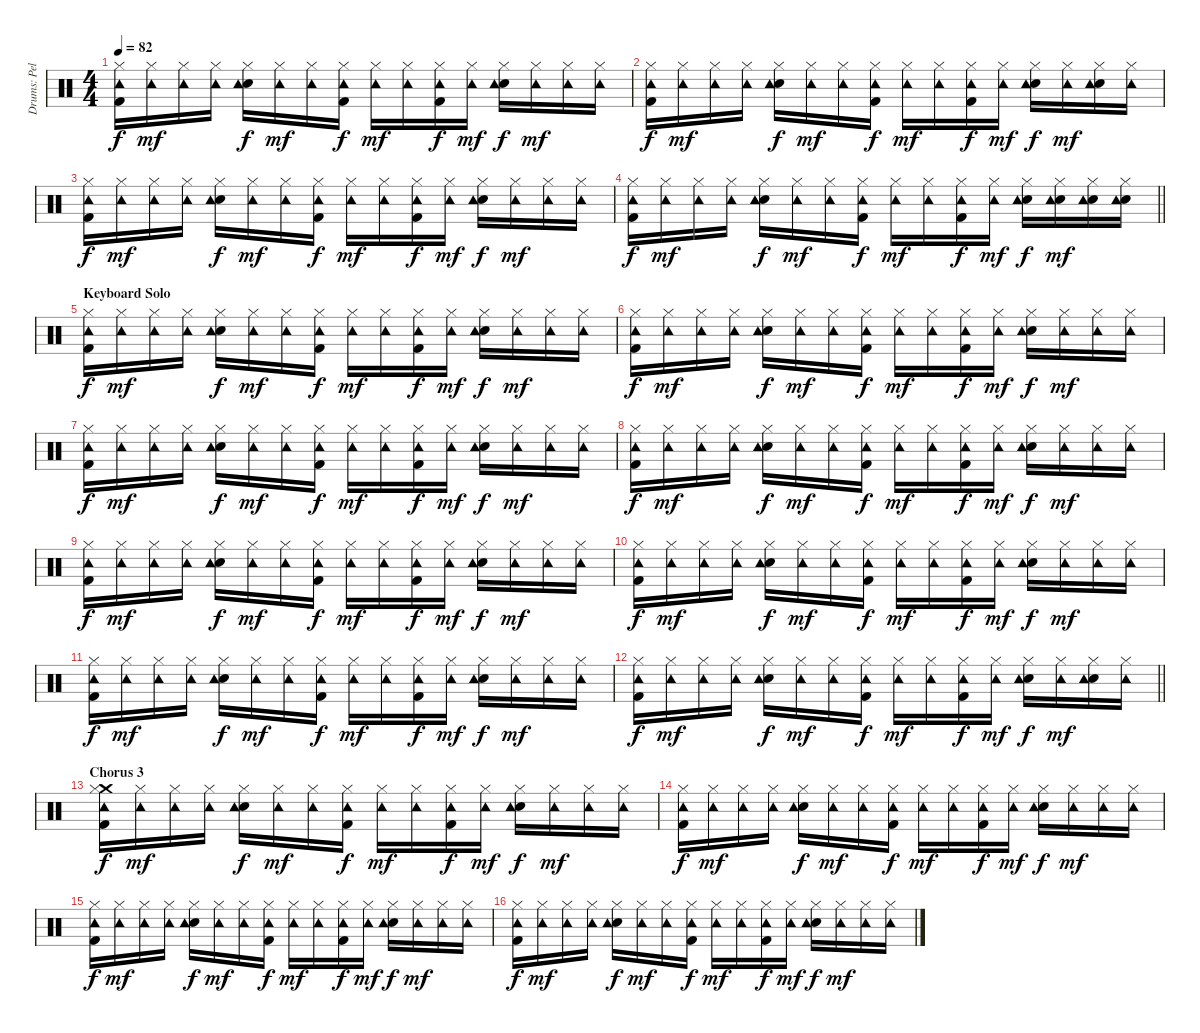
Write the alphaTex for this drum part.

\track ("Drums: Pelle Alsing" "Drums: Pel") {instrument percussion}
\staff {score}
\articulation defaults
\ts (4 4)
\tempo 82
\clef neutral
\ks c
("Hi-Hat (closed)" "Tambourine (hit)" "Kick (hit) 2").16{dy f} ("Hi-Hat (closed)" "Tambourine (hit)").16{dy mf} ("Hi-Hat (closed)" "Tambourine (hit)").16 ("Hi-Hat (closed)" "Tambourine (hit)").16 ("Hi-Hat (closed)" "Snare (hit) 2" "Tambourine (hit)").16{dy f} ("Hi-Hat (closed)" "Tambourine (hit)").16{dy mf} ("Hi-Hat (closed)" "Tambourine (hit)").16 ("Hi-Hat (closed)" "Tambourine (hit)" "Kick (hit) 2").16{dy f} ("Hi-Hat (closed)" "Tambourine (hit)").16{dy mf} ("Hi-Hat (closed)" "Tambourine (hit)").16 ("Hi-Hat (closed)" "Tambourine (hit)" "Kick (hit) 2").16{dy f} ("Hi-Hat (closed)" "Tambourine (hit)").16{dy mf} ("Hi-Hat (closed)" "Snare (hit) 2" "Tambourine (hit)").16{dy f} ("Hi-Hat (closed)" "Tambourine (hit)").16{dy mf} ("Hi-Hat (closed)" "Tambourine (hit)").16 ("Hi-Hat (closed)" "Tambourine (hit)").16 |
("Hi-Hat (closed)" "Tambourine (hit)" "Kick (hit) 2").16{dy f} ("Hi-Hat (closed)" "Tambourine (hit)").16{dy mf} ("Hi-Hat (closed)" "Tambourine (hit)").16 ("Hi-Hat (closed)" "Tambourine (hit)").16 ("Hi-Hat (closed)" "Snare (hit) 2" "Tambourine (hit)").16{dy f} ("Hi-Hat (closed)" "Tambourine (hit)").16{dy mf} ("Hi-Hat (closed)" "Tambourine (hit)").16 ("Hi-Hat (closed)" "Tambourine (hit)" "Kick (hit) 2").16{dy f} ("Hi-Hat (closed)" "Tambourine (hit)").16{dy mf} ("Hi-Hat (closed)" "Tambourine (hit)").16 ("Hi-Hat (closed)" "Tambourine (hit)" "Kick (hit) 2").16{dy f} ("Hi-Hat (closed)" "Tambourine (hit)").16{dy mf} ("Hi-Hat (closed)" "Snare (hit) 2" "Tambourine (hit)").16{dy f} ("Hi-Hat (closed)" "Tambourine (hit)").16{dy mf} ("Hi-Hat (closed)" "Snare (hit) 2" "Tambourine (hit)").16 ("Hi-Hat (closed)" "Tambourine (hit)").16 |
("Hi-Hat (closed)" "Tambourine (hit)" "Kick (hit) 2").16{dy f} ("Hi-Hat (closed)" "Tambourine (hit)").16{dy mf} ("Hi-Hat (closed)" "Tambourine (hit)").16 ("Hi-Hat (closed)" "Tambourine (hit)").16 ("Hi-Hat (closed)" "Snare (hit) 2" "Tambourine (hit)").16{dy f} ("Hi-Hat (closed)" "Tambourine (hit)").16{dy mf} ("Hi-Hat (closed)" "Tambourine (hit)").16 ("Hi-Hat (closed)" "Tambourine (hit)" "Kick (hit) 2").16{dy f} ("Hi-Hat (closed)" "Tambourine (hit)").16{dy mf} ("Hi-Hat (closed)" "Tambourine (hit)").16 ("Hi-Hat (closed)" "Tambourine (hit)" "Kick (hit) 2").16{dy f} ("Hi-Hat (closed)" "Tambourine (hit)").16{dy mf} ("Hi-Hat (closed)" "Snare (hit) 2" "Tambourine (hit)").16{dy f} ("Hi-Hat (closed)" "Tambourine (hit)").16{dy mf} ("Hi-Hat (closed)" "Tambourine (hit)").16 ("Hi-Hat (closed)" "Tambourine (hit)").16 |
\barLineRight lightlight
("Hi-Hat (closed)" "Tambourine (hit)" "Kick (hit) 2").16{dy f} ("Hi-Hat (closed)" "Tambourine (hit)").16{dy mf} ("Hi-Hat (closed)" "Tambourine (hit)").16 ("Hi-Hat (closed)" "Tambourine (hit)").16 ("Hi-Hat (closed)" "Snare (hit) 2" "Tambourine (hit)").16{dy f} ("Hi-Hat (closed)" "Tambourine (hit)").16{dy mf} ("Hi-Hat (closed)" "Tambourine (hit)").16 ("Hi-Hat (closed)" "Tambourine (hit)" "Kick (hit) 2").16{dy f} ("Hi-Hat (closed)" "Tambourine (hit)").16{dy mf} ("Hi-Hat (closed)" "Tambourine (hit)").16 ("Hi-Hat (closed)" "Tambourine (hit)" "Kick (hit) 2").16{dy f} ("Hi-Hat (closed)" "Tambourine (hit)").16{dy mf} ("Hi-Hat (closed)" "Snare (hit) 2" "Tambourine (hit)").16{dy f} ("Hi-Hat (closed)" "Snare (hit) 2" "Tambourine (hit)").16{dy mf} ("Hi-Hat (closed)" "Snare (hit) 2" "Tambourine (hit)").16 ("Hi-Hat (closed)" "Snare (hit) 2" "Tambourine (hit)").16 |
\section ("" "Keyboard Solo")
("Hi-Hat (closed)" "Tambourine (hit)" "Kick (hit) 2").16{dy f} ("Hi-Hat (closed)" "Tambourine (hit)").16{dy mf} ("Hi-Hat (closed)" "Tambourine (hit)").16 ("Hi-Hat (closed)" "Tambourine (hit)").16 ("Hi-Hat (closed)" "Snare (hit) 2" "Tambourine (hit)").16{dy f} ("Hi-Hat (closed)" "Tambourine (hit)").16{dy mf} ("Hi-Hat (closed)" "Tambourine (hit)").16 ("Hi-Hat (closed)" "Tambourine (hit)" "Kick (hit) 2").16{dy f} ("Hi-Hat (closed)" "Tambourine (hit)").16{dy mf} ("Hi-Hat (closed)" "Tambourine (hit)").16 ("Hi-Hat (closed)" "Tambourine (hit)" "Kick (hit) 2").16{dy f} ("Hi-Hat (closed)" "Tambourine (hit)").16{dy mf} ("Hi-Hat (closed)" "Snare (hit) 2" "Tambourine (hit)").16{dy f} ("Hi-Hat (closed)" "Tambourine (hit)").16{dy mf} ("Hi-Hat (closed)" "Tambourine (hit)").16 ("Hi-Hat (closed)" "Tambourine (hit)").16 |
("Hi-Hat (closed)" "Tambourine (hit)" "Kick (hit) 2").16{dy f} ("Hi-Hat (closed)" "Tambourine (hit)").16{dy mf} ("Hi-Hat (closed)" "Tambourine (hit)").16 ("Hi-Hat (closed)" "Tambourine (hit)").16 ("Hi-Hat (closed)" "Snare (hit) 2" "Tambourine (hit)").16{dy f} ("Hi-Hat (closed)" "Tambourine (hit)").16{dy mf} ("Hi-Hat (closed)" "Tambourine (hit)").16 ("Hi-Hat (closed)" "Tambourine (hit)" "Kick (hit) 2").16{dy f} ("Hi-Hat (closed)" "Tambourine (hit)").16{dy mf} ("Hi-Hat (closed)" "Tambourine (hit)").16 ("Hi-Hat (closed)" "Tambourine (hit)" "Kick (hit) 2").16{dy f} ("Hi-Hat (closed)" "Tambourine (hit)").16{dy mf} ("Hi-Hat (closed)" "Snare (hit) 2" "Tambourine (hit)").16{dy f} ("Hi-Hat (closed)" "Tambourine (hit)").16{dy mf} ("Hi-Hat (closed)" "Tambourine (hit)").16 ("Hi-Hat (closed)" "Tambourine (hit)").16 |
("Hi-Hat (closed)" "Tambourine (hit)" "Kick (hit) 2").16{dy f} ("Hi-Hat (closed)" "Tambourine (hit)").16{dy mf} ("Hi-Hat (closed)" "Tambourine (hit)").16 ("Hi-Hat (closed)" "Tambourine (hit)").16 ("Hi-Hat (closed)" "Snare (hit) 2" "Tambourine (hit)").16{dy f} ("Hi-Hat (closed)" "Tambourine (hit)").16{dy mf} ("Hi-Hat (closed)" "Tambourine (hit)").16 ("Hi-Hat (closed)" "Tambourine (hit)" "Kick (hit) 2").16{dy f} ("Hi-Hat (closed)" "Tambourine (hit)").16{dy mf} ("Hi-Hat (closed)" "Tambourine (hit)").16 ("Hi-Hat (closed)" "Tambourine (hit)" "Kick (hit) 2").16{dy f} ("Hi-Hat (closed)" "Tambourine (hit)").16{dy mf} ("Hi-Hat (closed)" "Snare (hit) 2" "Tambourine (hit)").16{dy f} ("Hi-Hat (closed)" "Tambourine (hit)").16{dy mf} ("Hi-Hat (closed)" "Tambourine (hit)").16 ("Hi-Hat (closed)" "Tambourine (hit)").16 |
("Hi-Hat (closed)" "Tambourine (hit)" "Kick (hit) 2").16{dy f} ("Hi-Hat (closed)" "Tambourine (hit)").16{dy mf} ("Hi-Hat (closed)" "Tambourine (hit)").16 ("Hi-Hat (closed)" "Tambourine (hit)").16 ("Hi-Hat (closed)" "Snare (hit) 2" "Tambourine (hit)").16{dy f} ("Hi-Hat (closed)" "Tambourine (hit)").16{dy mf} ("Hi-Hat (closed)" "Tambourine (hit)").16 ("Hi-Hat (closed)" "Tambourine (hit)" "Kick (hit) 2").16{dy f} ("Hi-Hat (closed)" "Tambourine (hit)").16{dy mf} ("Hi-Hat (closed)" "Tambourine (hit)").16 ("Hi-Hat (closed)" "Tambourine (hit)" "Kick (hit) 2").16{dy f} ("Hi-Hat (closed)" "Tambourine (hit)").16{dy mf} ("Hi-Hat (closed)" "Snare (hit) 2" "Tambourine (hit)").16{dy f} ("Hi-Hat (closed)" "Tambourine (hit)").16{dy mf} ("Hi-Hat (closed)" "Tambourine (hit)").16 ("Hi-Hat (closed)" "Tambourine (hit)").16 |
("Hi-Hat (closed)" "Tambourine (hit)" "Kick (hit) 2").16{dy f} ("Hi-Hat (closed)" "Tambourine (hit)").16{dy mf} ("Hi-Hat (closed)" "Tambourine (hit)").16 ("Hi-Hat (closed)" "Tambourine (hit)").16 ("Hi-Hat (closed)" "Snare (hit) 2" "Tambourine (hit)").16{dy f} ("Hi-Hat (closed)" "Tambourine (hit)").16{dy mf} ("Hi-Hat (closed)" "Tambourine (hit)").16 ("Hi-Hat (closed)" "Tambourine (hit)" "Kick (hit) 2").16{dy f} ("Hi-Hat (closed)" "Tambourine (hit)").16{dy mf} ("Hi-Hat (closed)" "Tambourine (hit)").16 ("Hi-Hat (closed)" "Tambourine (hit)" "Kick (hit) 2").16{dy f} ("Hi-Hat (closed)" "Tambourine (hit)").16{dy mf} ("Hi-Hat (closed)" "Snare (hit) 2" "Tambourine (hit)").16{dy f} ("Hi-Hat (closed)" "Tambourine (hit)").16{dy mf} ("Hi-Hat (closed)" "Tambourine (hit)").16 ("Hi-Hat (closed)" "Tambourine (hit)").16 |
("Hi-Hat (closed)" "Tambourine (hit)" "Kick (hit) 2").16{dy f} ("Hi-Hat (closed)" "Tambourine (hit)").16{dy mf} ("Hi-Hat (closed)" "Tambourine (hit)").16 ("Hi-Hat (closed)" "Tambourine (hit)").16 ("Hi-Hat (closed)" "Snare (hit) 2" "Tambourine (hit)").16{dy f} ("Hi-Hat (closed)" "Tambourine (hit)").16{dy mf} ("Hi-Hat (closed)" "Tambourine (hit)").16 ("Hi-Hat (closed)" "Tambourine (hit)" "Kick (hit) 2").16{dy f} ("Hi-Hat (closed)" "Tambourine (hit)").16{dy mf} ("Hi-Hat (closed)" "Tambourine (hit)").16 ("Hi-Hat (closed)" "Tambourine (hit)" "Kick (hit) 2").16{dy f} ("Hi-Hat (closed)" "Tambourine (hit)").16{dy mf} ("Hi-Hat (closed)" "Snare (hit) 2" "Tambourine (hit)").16{dy f} ("Hi-Hat (closed)" "Tambourine (hit)").16{dy mf} ("Hi-Hat (closed)" "Tambourine (hit)").16 ("Hi-Hat (closed)" "Tambourine (hit)").16 |
("Hi-Hat (closed)" "Tambourine (hit)" "Kick (hit) 2").16{dy f} ("Hi-Hat (closed)" "Tambourine (hit)").16{dy mf} ("Hi-Hat (closed)" "Tambourine (hit)").16 ("Hi-Hat (closed)" "Tambourine (hit)").16 ("Hi-Hat (closed)" "Snare (hit) 2" "Tambourine (hit)").16{dy f} ("Hi-Hat (closed)" "Tambourine (hit)").16{dy mf} ("Hi-Hat (closed)" "Tambourine (hit)").16 ("Hi-Hat (closed)" "Tambourine (hit)" "Kick (hit) 2").16{dy f} ("Hi-Hat (closed)" "Tambourine (hit)").16{dy mf} ("Hi-Hat (closed)" "Tambourine (hit)").16 ("Hi-Hat (closed)" "Tambourine (hit)" "Kick (hit) 2").16{dy f} ("Hi-Hat (closed)" "Tambourine (hit)").16{dy mf} ("Hi-Hat (closed)" "Snare (hit) 2" "Tambourine (hit)").16{dy f} ("Hi-Hat (closed)" "Tambourine (hit)").16{dy mf} ("Hi-Hat (closed)" "Tambourine (hit)").16 ("Hi-Hat (closed)" "Tambourine (hit)").16 |
\barLineRight lightlight
("Hi-Hat (closed)" "Tambourine (hit)" "Kick (hit) 2").16{dy f} ("Hi-Hat (closed)" "Tambourine (hit)").16{dy mf} ("Hi-Hat (closed)" "Tambourine (hit)").16 ("Hi-Hat (closed)" "Tambourine (hit)").16 ("Hi-Hat (closed)" "Snare (hit) 2" "Tambourine (hit)").16{dy f} ("Hi-Hat (closed)" "Tambourine (hit)").16{dy mf} ("Hi-Hat (closed)" "Tambourine (hit)").16 ("Hi-Hat (closed)" "Tambourine (hit)" "Kick (hit) 2").16{dy f} ("Hi-Hat (closed)" "Tambourine (hit)").16{dy mf} ("Hi-Hat (closed)" "Tambourine (hit)").16 ("Hi-Hat (closed)" "Tambourine (hit)" "Kick (hit) 2").16{dy f} ("Hi-Hat (closed)" "Tambourine (hit)").16{dy mf} ("Hi-Hat (closed)" "Snare (hit) 2" "Tambourine (hit)").16{dy f} ("Hi-Hat (closed)" "Tambourine (hit)").16{dy mf} ("Hi-Hat (closed)" "Snare (hit) 2" "Tambourine (hit)").16 ("Hi-Hat (closed)" "Tambourine (hit)").16 |
\section ("" "Chorus 3")
("Crash medium (hit)" "Hi-Hat (closed)" "Tambourine (hit)" "Kick (hit) 2").16{dy f} ("Hi-Hat (closed)" "Tambourine (hit)").16{dy mf} ("Hi-Hat (closed)" "Tambourine (hit)").16 ("Hi-Hat (closed)" "Tambourine (hit)").16 ("Hi-Hat (closed)" "Snare (hit) 2" "Tambourine (hit)").16{dy f} ("Hi-Hat (closed)" "Tambourine (hit)").16{dy mf} ("Hi-Hat (closed)" "Tambourine (hit)").16 ("Hi-Hat (closed)" "Tambourine (hit)" "Kick (hit) 2").16{dy f} ("Hi-Hat (closed)" "Tambourine (hit)").16{dy mf} ("Hi-Hat (closed)" "Tambourine (hit)").16 ("Hi-Hat (closed)" "Tambourine (hit)" "Kick (hit) 2").16{dy f} ("Hi-Hat (closed)" "Tambourine (hit)").16{dy mf} ("Hi-Hat (closed)" "Snare (hit) 2" "Tambourine (hit)").16{dy f} ("Hi-Hat (closed)" "Tambourine (hit)").16{dy mf} ("Hi-Hat (closed)" "Tambourine (hit)").16 ("Hi-Hat (closed)" "Tambourine (hit)").16 |
("Hi-Hat (closed)" "Tambourine (hit)" "Kick (hit) 2").16{dy f} ("Hi-Hat (closed)" "Tambourine (hit)").16{dy mf} ("Hi-Hat (closed)" "Tambourine (hit)").16 ("Hi-Hat (closed)" "Tambourine (hit)").16 ("Hi-Hat (closed)" "Snare (hit) 2" "Tambourine (hit)").16{dy f} ("Hi-Hat (closed)" "Tambourine (hit)").16{dy mf} ("Hi-Hat (closed)" "Tambourine (hit)").16 ("Hi-Hat (closed)" "Tambourine (hit)" "Kick (hit) 2").16{dy f} ("Hi-Hat (closed)" "Tambourine (hit)").16{dy mf} ("Hi-Hat (closed)" "Tambourine (hit)").16 ("Hi-Hat (closed)" "Tambourine (hit)" "Kick (hit) 2").16{dy f} ("Hi-Hat (closed)" "Tambourine (hit)").16{dy mf} ("Hi-Hat (closed)" "Snare (hit) 2" "Tambourine (hit)").16{dy f} ("Hi-Hat (closed)" "Tambourine (hit)").16{dy mf} ("Hi-Hat (closed)" "Tambourine (hit)").16 ("Hi-Hat (closed)" "Tambourine (hit)").16 |
("Hi-Hat (closed)" "Tambourine (hit)" "Kick (hit) 2").16{dy f} ("Hi-Hat (closed)" "Tambourine (hit)").16{dy mf} ("Hi-Hat (closed)" "Tambourine (hit)").16 ("Hi-Hat (closed)" "Tambourine (hit)").16 ("Hi-Hat (closed)" "Snare (hit) 2" "Tambourine (hit)").16{dy f} ("Hi-Hat (closed)" "Tambourine (hit)").16{dy mf} ("Hi-Hat (closed)" "Tambourine (hit)").16 ("Hi-Hat (closed)" "Tambourine (hit)" "Kick (hit) 2").16{dy f} ("Hi-Hat (closed)" "Tambourine (hit)").16{dy mf} ("Hi-Hat (closed)" "Tambourine (hit)").16 ("Hi-Hat (closed)" "Tambourine (hit)" "Kick (hit) 2").16{dy f} ("Hi-Hat (closed)" "Tambourine (hit)").16{dy mf} ("Hi-Hat (closed)" "Snare (hit) 2" "Tambourine (hit)").16{dy f} ("Hi-Hat (closed)" "Tambourine (hit)").16{dy mf} ("Hi-Hat (closed)" "Tambourine (hit)").16 ("Hi-Hat (closed)" "Tambourine (hit)").16 |
("Hi-Hat (closed)" "Tambourine (hit)" "Kick (hit) 2").16{dy f} ("Hi-Hat (closed)" "Tambourine (hit)").16{dy mf} ("Hi-Hat (closed)" "Tambourine (hit)").16 ("Hi-Hat (closed)" "Tambourine (hit)").16 ("Hi-Hat (closed)" "Snare (hit) 2" "Tambourine (hit)").16{dy f} ("Hi-Hat (closed)" "Tambourine (hit)").16{dy mf} ("Hi-Hat (closed)" "Tambourine (hit)").16 ("Hi-Hat (closed)" "Tambourine (hit)" "Kick (hit) 2").16{dy f} ("Hi-Hat (closed)" "Tambourine (hit)").16{dy mf} ("Hi-Hat (closed)" "Tambourine (hit)").16 ("Hi-Hat (closed)" "Tambourine (hit)" "Kick (hit) 2").16{dy f} ("Hi-Hat (closed)" "Tambourine (hit)").16{dy mf} ("Hi-Hat (closed)" "Snare (hit) 2" "Tambourine (hit)").16{dy f} ("Hi-Hat (closed)" "Tambourine (hit)").16{dy mf} ("Hi-Hat (closed)" "Tambourine (hit)").16 ("Hi-Hat (closed)" "Tambourine (hit)").16
